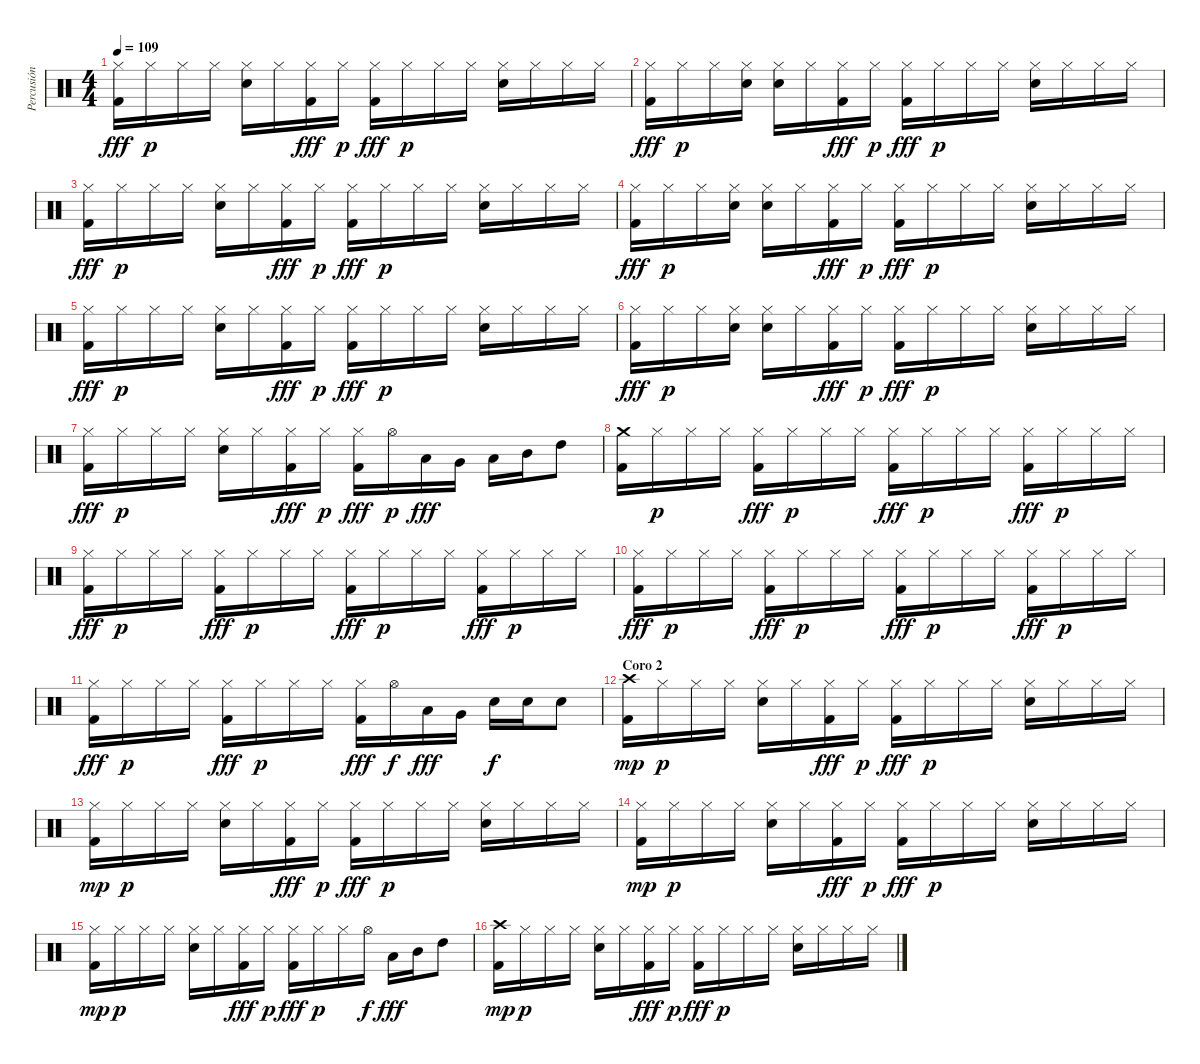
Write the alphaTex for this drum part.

\track ("Percusión" "Percusión") {instrument percussion}
\staff {score}
\articulation defaults
\ts (4 4)
\tempo 109
\clef neutral
\ks c
("Hi-Hat (closed)" "Kick (hit) 2").16{dy fff} "Hi-Hat (closed)".16{dy p} "Hi-Hat (closed)".16 "Hi-Hat (closed)".16 ("Hi-Hat (closed)" "Snare (hit) 2").16 "Hi-Hat (closed)".16 ("Hi-Hat (closed)" "Kick (hit) 2").16{dy fff} "Hi-Hat (closed)".16{dy p} ("Hi-Hat (closed)" "Kick (hit) 2").16{dy fff} "Hi-Hat (closed)".16{dy p} "Hi-Hat (closed)".16 "Hi-Hat (closed)".16 ("Hi-Hat (closed)" "Snare (hit) 2").16 "Hi-Hat (closed)".16 "Hi-Hat (closed)".16 "Hi-Hat (closed)".16 |
("Hi-Hat (closed)" "Kick (hit) 2").16{dy fff} "Hi-Hat (closed)".16{dy p} "Hi-Hat (closed)".16 ("Hi-Hat (closed)" "Snare (hit) 2").16 ("Hi-Hat (closed)" "Snare (hit) 2").16 "Hi-Hat (closed)".16 ("Hi-Hat (closed)" "Kick (hit) 2").16{dy fff} "Hi-Hat (closed)".16{dy p} ("Hi-Hat (closed)" "Kick (hit) 2").16{dy fff} "Hi-Hat (closed)".16{dy p} "Hi-Hat (closed)".16 "Hi-Hat (closed)".16 ("Hi-Hat (closed)" "Snare (hit) 2").16 "Hi-Hat (closed)".16 "Hi-Hat (closed)".16 "Hi-Hat (closed)".16 |
("Hi-Hat (closed)" "Kick (hit) 2").16{dy fff} "Hi-Hat (closed)".16{dy p} "Hi-Hat (closed)".16 "Hi-Hat (closed)".16 ("Hi-Hat (closed)" "Snare (hit) 2").16 "Hi-Hat (closed)".16 ("Hi-Hat (closed)" "Kick (hit) 2").16{dy fff} "Hi-Hat (closed)".16{dy p} ("Hi-Hat (closed)" "Kick (hit) 2").16{dy fff} "Hi-Hat (closed)".16{dy p} "Hi-Hat (closed)".16 "Hi-Hat (closed)".16 ("Hi-Hat (closed)" "Snare (hit) 2").16 "Hi-Hat (closed)".16 "Hi-Hat (closed)".16 "Hi-Hat (closed)".16 |
("Hi-Hat (closed)" "Kick (hit) 2").16{dy fff} "Hi-Hat (closed)".16{dy p} "Hi-Hat (closed)".16 ("Hi-Hat (closed)" "Snare (hit) 2").16 ("Hi-Hat (closed)" "Snare (hit) 2").16 "Hi-Hat (closed)".16 ("Hi-Hat (closed)" "Kick (hit) 2").16{dy fff} "Hi-Hat (closed)".16{dy p} ("Hi-Hat (closed)" "Kick (hit) 2").16{dy fff} "Hi-Hat (closed)".16{dy p} "Hi-Hat (closed)".16 "Hi-Hat (closed)".16 ("Hi-Hat (closed)" "Snare (hit) 2").16 "Hi-Hat (closed)".16 "Hi-Hat (closed)".16 "Hi-Hat (closed)".16 |
("Hi-Hat (closed)" "Kick (hit) 2").16{dy fff} "Hi-Hat (closed)".16{dy p} "Hi-Hat (closed)".16 "Hi-Hat (closed)".16 ("Hi-Hat (closed)" "Snare (hit) 2").16 "Hi-Hat (closed)".16 ("Hi-Hat (closed)" "Kick (hit) 2").16{dy fff} "Hi-Hat (closed)".16{dy p} ("Hi-Hat (closed)" "Kick (hit) 2").16{dy fff} "Hi-Hat (closed)".16{dy p} "Hi-Hat (closed)".16 "Hi-Hat (closed)".16 ("Hi-Hat (closed)" "Snare (hit) 2").16 "Hi-Hat (closed)".16 "Hi-Hat (closed)".16 "Hi-Hat (closed)".16 |
("Hi-Hat (closed)" "Kick (hit) 2").16{dy fff} "Hi-Hat (closed)".16{dy p} "Hi-Hat (closed)".16 ("Hi-Hat (closed)" "Snare (hit) 2").16 ("Hi-Hat (closed)" "Snare (hit) 2").16 "Hi-Hat (closed)".16 ("Hi-Hat (closed)" "Kick (hit) 2").16{dy fff} "Hi-Hat (closed)".16{dy p} ("Hi-Hat (closed)" "Kick (hit) 2").16{dy fff} "Hi-Hat (closed)".16{dy p} "Hi-Hat (closed)".16 "Hi-Hat (closed)".16 ("Hi-Hat (closed)" "Snare (hit) 2").16 "Hi-Hat (closed)".16 "Hi-Hat (closed)".16 "Hi-Hat (closed)".16 |
("Hi-Hat (closed)" "Kick (hit) 2").16{dy fff} "Hi-Hat (closed)".16{dy p} "Hi-Hat (closed)".16 "Hi-Hat (closed)".16 ("Hi-Hat (closed)" "Snare (hit) 2").16 "Hi-Hat (closed)".16 ("Hi-Hat (closed)" "Kick (hit) 2").16{dy fff} "Hi-Hat (closed)".16{dy p} ("Hi-Hat (closed)" "Kick (hit) 2").16{dy fff} "Hi-Hat (open)".16{dy p} "Low Floor Tom (hit)".16{dy fff} "Very Low Tom (hit)".16 "Low Tom (hit)".16 "Mid Tom (hit)".16 "High Tom (hit)".8 |
("Crash medium (hit)" "Kick (hit) 2").16 "Hi-Hat (closed)".16{dy p} "Hi-Hat (closed)".16 "Hi-Hat (closed)".16 ("Hi-Hat (closed)" "Kick (hit) 2").16{dy fff} "Hi-Hat (closed)".16{dy p} "Hi-Hat (closed)".16 "Hi-Hat (closed)".16 ("Hi-Hat (closed)" "Kick (hit) 2").16{dy fff} "Hi-Hat (closed)".16{dy p} "Hi-Hat (closed)".16 "Hi-Hat (closed)".16 ("Hi-Hat (closed)" "Kick (hit) 2").16{dy fff} "Hi-Hat (closed)".16{dy p} "Hi-Hat (closed)".16 "Hi-Hat (closed)".16 |
("Hi-Hat (closed)" "Kick (hit) 2").16{dy fff} "Hi-Hat (closed)".16{dy p} "Hi-Hat (closed)".16 "Hi-Hat (closed)".16 ("Hi-Hat (closed)" "Kick (hit) 2").16{dy fff} "Hi-Hat (closed)".16{dy p} "Hi-Hat (closed)".16 "Hi-Hat (closed)".16 ("Hi-Hat (closed)" "Kick (hit) 2").16{dy fff} "Hi-Hat (closed)".16{dy p} "Hi-Hat (closed)".16 "Hi-Hat (closed)".16 ("Hi-Hat (closed)" "Kick (hit) 2").16{dy fff} "Hi-Hat (closed)".16{dy p} "Hi-Hat (closed)".16 "Hi-Hat (closed)".16 |
("Hi-Hat (closed)" "Kick (hit) 2").16{dy fff} "Hi-Hat (closed)".16{dy p} "Hi-Hat (closed)".16 "Hi-Hat (closed)".16 ("Hi-Hat (closed)" "Kick (hit) 2").16{dy fff} "Hi-Hat (closed)".16{dy p} "Hi-Hat (closed)".16 "Hi-Hat (closed)".16 ("Hi-Hat (closed)" "Kick (hit) 2").16{dy fff} "Hi-Hat (closed)".16{dy p} "Hi-Hat (closed)".16 "Hi-Hat (closed)".16 ("Hi-Hat (closed)" "Kick (hit) 2").16{dy fff} "Hi-Hat (closed)".16{dy p} "Hi-Hat (closed)".16 "Hi-Hat (closed)".16 |
("Hi-Hat (closed)" "Kick (hit) 2").16{dy fff} "Hi-Hat (closed)".16{dy p} "Hi-Hat (closed)".16 "Hi-Hat (closed)".16 ("Hi-Hat (closed)" "Kick (hit) 2").16{dy fff} "Hi-Hat (closed)".16{dy p} "Hi-Hat (closed)".16 "Hi-Hat (closed)".16 ("Hi-Hat (closed)" "Kick (hit) 2").16{dy fff} "Hi-Hat (open)".16{dy f} "Low Floor Tom (hit)".16{dy fff} "Very Low Tom (hit)".16 "Snare (hit) 2".16{dy f} "Snare (hit) 2".16 "Snare (hit) 2".8 |
\section ("" "Coro 2")
("Crash high (hit)" "Kick (hit) 2").16{dy mp} "Hi-Hat (closed)".16{dy p} "Hi-Hat (closed)".16 "Hi-Hat (closed)".16 ("Hi-Hat (closed)" "Snare (hit) 2").16 "Hi-Hat (closed)".16 ("Hi-Hat (closed)" "Kick (hit) 2").16{dy fff} "Hi-Hat (closed)".16{dy p} ("Hi-Hat (closed)" "Kick (hit) 2").16{dy fff} "Hi-Hat (closed)".16{dy p} "Hi-Hat (closed)".16 "Hi-Hat (closed)".16 ("Hi-Hat (closed)" "Snare (hit) 2").16 "Hi-Hat (closed)".16 "Hi-Hat (closed)".16 "Hi-Hat (closed)".16 |
("Hi-Hat (closed)" "Kick (hit) 2").16{dy mp} "Hi-Hat (closed)".16{dy p} "Hi-Hat (closed)".16 "Hi-Hat (closed)".16 ("Hi-Hat (closed)" "Snare (hit) 2").16 "Hi-Hat (closed)".16 ("Hi-Hat (closed)" "Kick (hit) 2").16{dy fff} "Hi-Hat (closed)".16{dy p} ("Hi-Hat (closed)" "Kick (hit) 2").16{dy fff} "Hi-Hat (closed)".16{dy p} "Hi-Hat (closed)".16 "Hi-Hat (closed)".16 ("Hi-Hat (closed)" "Snare (hit) 2").16 "Hi-Hat (closed)".16 "Hi-Hat (closed)".16 "Hi-Hat (closed)".16 |
("Hi-Hat (closed)" "Kick (hit) 2").16{dy mp} "Hi-Hat (closed)".16{dy p} "Hi-Hat (closed)".16 "Hi-Hat (closed)".16 ("Hi-Hat (closed)" "Snare (hit) 2").16 "Hi-Hat (closed)".16 ("Hi-Hat (closed)" "Kick (hit) 2").16{dy fff} "Hi-Hat (closed)".16{dy p} ("Hi-Hat (closed)" "Kick (hit) 2").16{dy fff} "Hi-Hat (closed)".16{dy p} "Hi-Hat (closed)".16 "Hi-Hat (closed)".16 ("Hi-Hat (closed)" "Snare (hit) 2").16 "Hi-Hat (closed)".16 "Hi-Hat (closed)".16 "Hi-Hat (closed)".16 |
("Hi-Hat (closed)" "Kick (hit) 2").16{dy mp} "Hi-Hat (closed)".16{dy p} "Hi-Hat (closed)".16 "Hi-Hat (closed)".16 ("Hi-Hat (closed)" "Snare (hit) 2").16 "Hi-Hat (closed)".16 ("Hi-Hat (closed)" "Kick (hit) 2").16{dy fff} "Hi-Hat (closed)".16{dy p} ("Hi-Hat (closed)" "Kick (hit) 2").16{dy fff} "Hi-Hat (closed)".16{dy p} "Hi-Hat (closed)".16 "Hi-Hat (open)".16{dy f} "Low Tom (hit)".16{dy fff} "Mid Tom (hit)".16 "High Tom (hit)".8 |
("Crash high (hit)" "Kick (hit) 2").16{dy mp} "Hi-Hat (closed)".16{dy p} "Hi-Hat (closed)".16 "Hi-Hat (closed)".16 ("Hi-Hat (closed)" "Snare (hit) 2").16 "Hi-Hat (closed)".16 ("Hi-Hat (closed)" "Kick (hit) 2").16{dy fff} "Hi-Hat (closed)".16{dy p} ("Hi-Hat (closed)" "Kick (hit) 2").16{dy fff} "Hi-Hat (closed)".16{dy p} "Hi-Hat (closed)".16 "Hi-Hat (closed)".16 ("Hi-Hat (closed)" "Snare (hit) 2").16 "Hi-Hat (closed)".16 "Hi-Hat (closed)".16 "Hi-Hat (closed)".16
